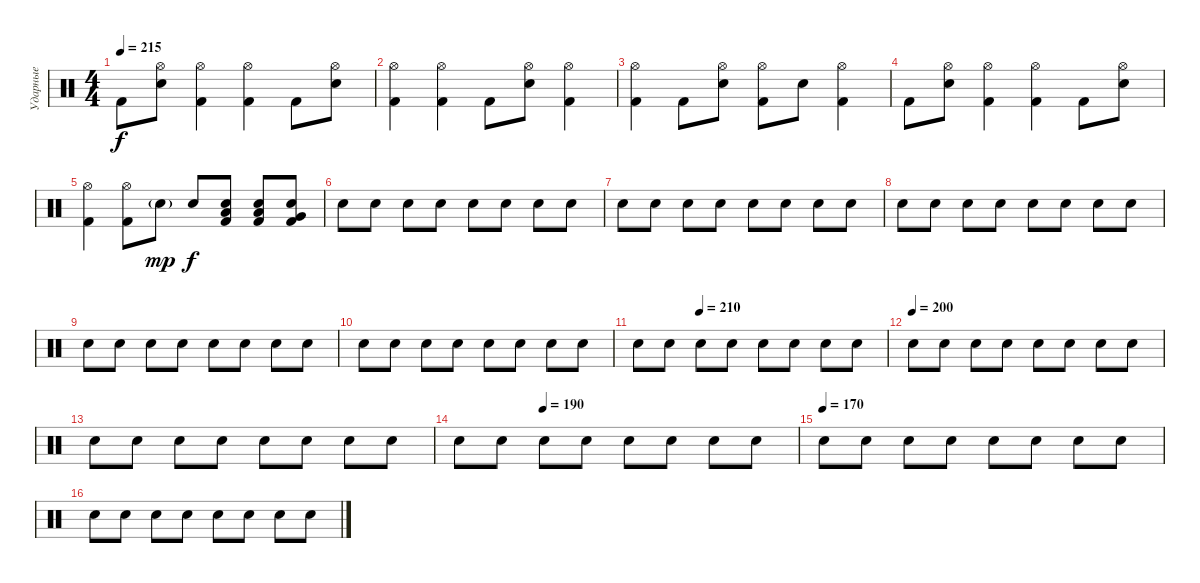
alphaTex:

\track ("Ударные" "Ударные") {instrument percussion}
\staff {score}
\articulation defaults
\ts (4 4)
\tempo 215
\clef neutral
\ks c "Kick (hit) 2".8{dy f}
("Hi-Hat (open)" "Snare (hit) 2").8 ("Hi-Hat (open)" "Kick (hit) 2").4 ("Hi-Hat (open)" "Kick (hit) 2").4 "Kick (hit) 2".8 ("Hi-Hat (open)" "Snare (hit) 2").8 |
("Hi-Hat (open)" "Kick (hit) 2").4 ("Hi-Hat (open)" "Kick (hit) 2").4 "Kick (hit) 2".8 ("Hi-Hat (open)" "Snare (hit) 2").8 ("Hi-Hat (open)" "Kick (hit) 2").4 |
("Hi-Hat (open)" "Kick (hit) 2").4 "Kick (hit) 2".8 ("Hi-Hat (open)" "Snare (hit) 2").8 ("Hi-Hat (open)" "Kick (hit) 2").8 "Snare (hit) 2".8 ("Hi-Hat (open)" "Kick (hit) 2").4 |
"Kick (hit) 2".8 ("Hi-Hat (open)" "Snare (hit) 2").8 ("Hi-Hat (open)" "Kick (hit) 2").4 ("Hi-Hat (open)" "Kick (hit) 2").4 "Kick (hit) 2".8 ("Hi-Hat (open)" "Snare (hit) 2").8 |
("Hi-Hat (open)" "Kick (hit) 2").4 ("Hi-Hat (open)" "Kick (hit) 2").8 "Snare (hit) 2"{g}.8{dy mp} "Snare (hit) 2".8{dy f} ("Low Floor Tom (hit)" "Snare (hit) 2" "Kick (hit) 2").8 ("Low Floor Tom (hit)" "Snare (hit) 2" "Kick (hit) 2").8 ("Very Low Tom (hit)" "Snare (hit) 2" "Kick (hit) 2").8 |
"Snare (hit) 2".8 "Snare (hit) 2".8 "Snare (hit) 2".8 "Snare (hit) 2".8 "Snare (hit) 2".8 "Snare (hit) 2".8 "Snare (hit) 2".8 "Snare (hit) 2".8 |
"Snare (hit) 2".8 "Snare (hit) 2".8 "Snare (hit) 2".8 "Snare (hit) 2".8 "Snare (hit) 2".8 "Snare (hit) 2".8 "Snare (hit) 2".8 "Snare (hit) 2".8 |
"Snare (hit) 2".8 "Snare (hit) 2".8 "Snare (hit) 2".8 "Snare (hit) 2".8 "Snare (hit) 2".8 "Snare (hit) 2".8 "Snare (hit) 2".8 "Snare (hit) 2".8 |
"Snare (hit) 2".8 "Snare (hit) 2".8 "Snare (hit) 2".8 "Snare (hit) 2".8 "Snare (hit) 2".8 "Snare (hit) 2".8 "Snare (hit) 2".8 "Snare (hit) 2".8 |
"Snare (hit) 2".8 "Snare (hit) 2".8 "Snare (hit) 2".8 "Snare (hit) 2".8 "Snare (hit) 2".8 "Snare (hit) 2".8 "Snare (hit) 2".8 "Snare (hit) 2".8 |
\tempo (210 0.25)
"Snare (hit) 2".8 "Snare (hit) 2".8 "Snare (hit) 2".8 "Snare (hit) 2".8 "Snare (hit) 2".8 "Snare (hit) 2".8 "Snare (hit) 2".8 "Snare (hit) 2".8 |
\tempo (200)
"Snare (hit) 2".8 "Snare (hit) 2".8 "Snare (hit) 2".8 "Snare (hit) 2".8 "Snare (hit) 2".8 "Snare (hit) 2".8 "Snare (hit) 2".8 "Snare (hit) 2".8 |
"Snare (hit) 2".8 "Snare (hit) 2".8 "Snare (hit) 2".8 "Snare (hit) 2".8 "Snare (hit) 2".8 "Snare (hit) 2".8 "Snare (hit) 2".8 "Snare (hit) 2".8 |
\tempo (190 0.25)
"Snare (hit) 2".8 "Snare (hit) 2".8 "Snare (hit) 2".8 "Snare (hit) 2".8 "Snare (hit) 2".8 "Snare (hit) 2".8 "Snare (hit) 2".8 "Snare (hit) 2".8 |
\tempo (170)
"Snare (hit) 2".8 "Snare (hit) 2".8 "Snare (hit) 2".8 "Snare (hit) 2".8 "Snare (hit) 2".8 "Snare (hit) 2".8 "Snare (hit) 2".8 "Snare (hit) 2".8 |
"Snare (hit) 2".8 "Snare (hit) 2".8 "Snare (hit) 2".8 "Snare (hit) 2".8 "Snare (hit) 2".8 "Snare (hit) 2".8 "Snare (hit) 2".8 "Snare (hit) 2".8
